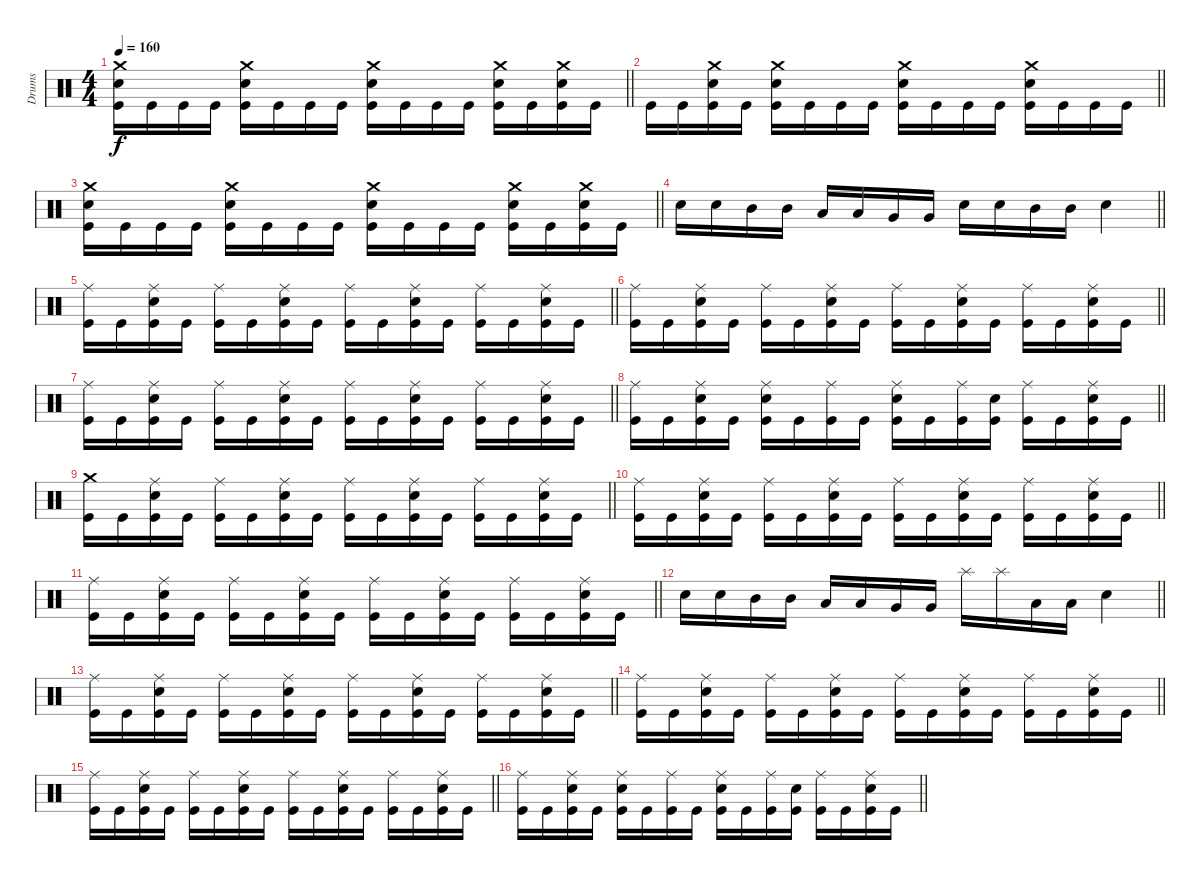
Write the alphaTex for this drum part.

\track ("Drums" "Drums") {instrument percussion}
\staff {score}
\articulation defaults
\ts (4 4)
\tempo 160
\clef neutral
\barLineRight lightlight
\ks c
("Crash medium (hit)" "Snare (hit) 2" "Kick (hit)").16{dy f} "Kick (hit)".16 "Kick (hit)".16 "Kick (hit)".16 ("Crash medium (hit)" "Snare (hit) 2" "Kick (hit)").16 "Kick (hit)".16 "Kick (hit)".16 "Kick (hit)".16 ("Crash medium (hit)" "Snare (hit) 2" "Kick (hit)").16 "Kick (hit)".16 "Kick (hit)".16 "Kick (hit)".16 ("Crash medium (hit)" "Snare (hit) 2" "Kick (hit)").16 "Kick (hit)".16 ("Crash medium (hit)" "Snare (hit) 2" "Kick (hit)").16 "Kick (hit)".16 |
\barLineRight lightlight "Kick (hit)".16 "Kick (hit)".16
("Crash medium (hit)" "Snare (hit) 2" "Kick (hit)").16 "Kick (hit)".16 ("Crash medium (hit)" "Snare (hit) 2" "Kick (hit)").16 "Kick (hit)".16 "Kick (hit)".16 "Kick (hit)".16 ("Crash medium (hit)" "Snare (hit) 2" "Kick (hit)").16 "Kick (hit)".16 "Kick (hit)".16 "Kick (hit)".16 ("Crash medium (hit)" "Snare (hit) 2" "Kick (hit)").16 "Kick (hit)".16 "Kick (hit)".16 "Kick (hit)".16 |
\barLineRight lightlight
("Crash medium (hit)" "Snare (hit) 2" "Kick (hit)").16 "Kick (hit)".16 "Kick (hit)".16 "Kick (hit)".16 ("Crash medium (hit)" "Snare (hit) 2" "Kick (hit)").16 "Kick (hit)".16 "Kick (hit)".16 "Kick (hit)".16 ("Crash medium (hit)" "Snare (hit) 2" "Kick (hit)").16 "Kick (hit)".16 "Kick (hit)".16 "Kick (hit)".16 ("Crash medium (hit)" "Snare (hit) 2" "Kick (hit)").16 "Kick (hit)".16 ("Crash medium (hit)" "Snare (hit) 2" "Kick (hit)").16 "Kick (hit)".16 |
\barLineRight lightlight "Snare (hit) 2".16 "Snare (hit) 2".16 "Mid Tom (hit)".16 "Mid Tom (hit)".16 "Low Tom (hit)".16 "Low Tom (hit)".16 "Very Low Tom (hit)".16 "Very Low Tom (hit)".16 "Snare (hit) 2".16 "Snare (hit) 2".16 "Mid Tom (hit)".16 "Mid Tom (hit)".16 "Snare (hit) 2".4
|
\barLineRight lightlight
("Ride (middle)" "Kick (hit)").16 "Kick (hit)".16 ("Ride (middle)" "Snare (hit) 2" "Kick (hit)").16 "Kick (hit)".16 ("Ride (middle)" "Kick (hit)").16 "Kick (hit)".16 ("Ride (middle)" "Snare (hit) 2" "Kick (hit)").16 "Kick (hit)".16 ("Ride (middle)" "Kick (hit)").16 "Kick (hit)".16 ("Ride (middle)" "Snare (hit) 2" "Kick (hit)").16 "Kick (hit)".16 ("Ride (middle)" "Kick (hit)").16 "Kick (hit)".16 ("Ride (middle)" "Snare (hit) 2" "Kick (hit)").16 "Kick (hit)".16 |
\barLineRight lightlight
("Ride (middle)" "Kick (hit)").16 "Kick (hit)".16 ("Ride (middle)" "Snare (hit) 2" "Kick (hit)").16 "Kick (hit)".16 ("Ride (middle)" "Kick (hit)").16 "Kick (hit)".16 ("Ride (middle)" "Snare (hit) 2" "Kick (hit)").16 "Kick (hit)".16 ("Ride (middle)" "Kick (hit)").16 "Kick (hit)".16 ("Ride (middle)" "Snare (hit) 2" "Kick (hit)").16 "Kick (hit)".16 ("Ride (middle)" "Kick (hit)").16 "Kick (hit)".16 ("Ride (middle)" "Snare (hit) 2" "Kick (hit)").16 "Kick (hit)".16 |
\barLineRight lightlight
("Ride (middle)" "Kick (hit)").16 "Kick (hit)".16 ("Ride (middle)" "Snare (hit) 2" "Kick (hit)").16 "Kick (hit)".16 ("Ride (middle)" "Kick (hit)").16 "Kick (hit)".16 ("Ride (middle)" "Snare (hit) 2" "Kick (hit)").16 "Kick (hit)".16 ("Ride (middle)" "Kick (hit)").16 "Kick (hit)".16 ("Ride (middle)" "Snare (hit) 2" "Kick (hit)").16 "Kick (hit)".16 ("Ride (middle)" "Kick (hit)").16 "Kick (hit)".16 ("Ride (middle)" "Snare (hit) 2" "Kick (hit)").16 "Kick (hit)".16 |
\barLineRight lightlight
("Ride (middle)" "Kick (hit)").16 "Kick (hit)".16 ("Ride (middle)" "Snare (hit) 2" "Kick (hit)").16 "Kick (hit)".16 ("Ride (middle)" "Snare (hit) 2" "Kick (hit)").16 "Kick (hit)".16 ("Ride (middle)" "Kick (hit)").16 "Kick (hit)".16 ("Ride (middle)" "Snare (hit) 2" "Kick (hit)").16 "Kick (hit)".16 ("Ride (middle)" "Kick (hit)").16 ("Snare (hit) 2" "Kick (hit)").16 ("Ride (middle)" "Kick (hit)").16 "Kick (hit)".16 ("Ride (middle)" "Snare (hit) 2" "Kick (hit)").16 "Kick (hit)".16 |
\barLineRight lightlight
("Crash medium (hit)" "Kick (hit)").16 "Kick (hit)".16 ("Ride (middle)" "Snare (hit) 2" "Kick (hit)").16 "Kick (hit)".16 ("Ride (middle)" "Kick (hit)").16 "Kick (hit)".16 ("Ride (middle)" "Snare (hit) 2" "Kick (hit)").16 "Kick (hit)".16 ("Ride (middle)" "Kick (hit)").16 "Kick (hit)".16 ("Ride (middle)" "Snare (hit) 2" "Kick (hit)").16 "Kick (hit)".16 ("Ride (middle)" "Kick (hit)").16 "Kick (hit)".16 ("Ride (middle)" "Snare (hit) 2" "Kick (hit)").16 "Kick (hit)".16 |
\barLineRight lightlight
("Ride (middle)" "Kick (hit)").16 "Kick (hit)".16 ("Ride (middle)" "Snare (hit) 2" "Kick (hit)").16 "Kick (hit)".16 ("Ride (middle)" "Kick (hit)").16 "Kick (hit)".16 ("Ride (middle)" "Snare (hit) 2" "Kick (hit)").16 "Kick (hit)".16 ("Ride (middle)" "Kick (hit)").16 "Kick (hit)".16 ("Ride (middle)" "Snare (hit) 2" "Kick (hit)").16 "Kick (hit)".16 ("Ride (middle)" "Kick (hit)").16 "Kick (hit)".16 ("Ride (middle)" "Snare (hit) 2" "Kick (hit)").16 "Kick (hit)".16 |
\barLineRight lightlight
("Ride (middle)" "Kick (hit)").16 "Kick (hit)".16 ("Ride (middle)" "Snare (hit) 2" "Kick (hit)").16 "Kick (hit)".16 ("Ride (middle)" "Kick (hit)").16 "Kick (hit)".16 ("Ride (middle)" "Snare (hit) 2" "Kick (hit)").16 "Kick (hit)".16 ("Ride (middle)" "Kick (hit)").16 "Kick (hit)".16 ("Ride (middle)" "Snare (hit) 2" "Kick (hit)").16 "Kick (hit)".16 ("Ride (middle)" "Kick (hit)").16 "Kick (hit)".16 ("Ride (middle)" "Snare (hit) 2" "Kick (hit)").16 "Kick (hit)".16 |
\barLineRight lightlight "Snare (hit) 2".16 "Snare (hit) 2".16 "Mid Tom (hit)".16 "Mid Tom (hit)".16 "Low Tom (hit)".16 "Low Tom (hit)".16 "Very Low Tom (hit)".16 "Very Low Tom (hit)".16 "Splash (hit)".16 "Splash (hit)".16 "Low Floor Tom (hit)".16 "Low Floor Tom (hit)".16 "Snare (hit) 2".4
|
\barLineRight lightlight
("Ride (middle)" "Kick (hit)").16 "Kick (hit)".16 ("Ride (middle)" "Snare (hit) 2" "Kick (hit)").16 "Kick (hit)".16 ("Ride (middle)" "Kick (hit)").16 "Kick (hit)".16 ("Ride (middle)" "Snare (hit) 2" "Kick (hit)").16 "Kick (hit)".16 ("Ride (middle)" "Kick (hit)").16 "Kick (hit)".16 ("Ride (middle)" "Snare (hit) 2" "Kick (hit)").16 "Kick (hit)".16 ("Ride (middle)" "Kick (hit)").16 "Kick (hit)".16 ("Ride (middle)" "Snare (hit) 2" "Kick (hit)").16 "Kick (hit)".16 |
\barLineRight lightlight
("Ride (middle)" "Kick (hit)").16 "Kick (hit)".16 ("Ride (middle)" "Snare (hit) 2" "Kick (hit)").16 "Kick (hit)".16 ("Ride (middle)" "Kick (hit)").16 "Kick (hit)".16 ("Ride (middle)" "Snare (hit) 2" "Kick (hit)").16 "Kick (hit)".16 ("Ride (middle)" "Kick (hit)").16 "Kick (hit)".16 ("Ride (middle)" "Snare (hit) 2" "Kick (hit)").16 "Kick (hit)".16 ("Ride (middle)" "Kick (hit)").16 "Kick (hit)".16 ("Ride (middle)" "Snare (hit) 2" "Kick (hit)").16 "Kick (hit)".16 |
\barLineRight lightlight
("Ride (middle)" "Kick (hit)").16 "Kick (hit)".16 ("Ride (middle)" "Snare (hit) 2" "Kick (hit)").16 "Kick (hit)".16 ("Ride (middle)" "Kick (hit)").16 "Kick (hit)".16 ("Ride (middle)" "Snare (hit) 2" "Kick (hit)").16 "Kick (hit)".16 ("Ride (middle)" "Kick (hit)").16 "Kick (hit)".16 ("Ride (middle)" "Snare (hit) 2" "Kick (hit)").16 "Kick (hit)".16 ("Ride (middle)" "Kick (hit)").16 "Kick (hit)".16 ("Ride (middle)" "Snare (hit) 2" "Kick (hit)").16 "Kick (hit)".16 |
\barLineRight lightlight
("Ride (middle)" "Kick (hit)").16 "Kick (hit)".16 ("Ride (middle)" "Snare (hit) 2" "Kick (hit)").16 "Kick (hit)".16 ("Ride (middle)" "Snare (hit) 2" "Kick (hit)").16 "Kick (hit)".16 ("Ride (middle)" "Kick (hit)").16 "Kick (hit)".16 ("Ride (middle)" "Snare (hit) 2" "Kick (hit)").16 "Kick (hit)".16 ("Ride (middle)" "Kick (hit)").16 ("Snare (hit) 2" "Kick (hit)").16 ("Ride (middle)" "Kick (hit)").16 "Kick (hit)".16 ("Ride (middle)" "Snare (hit) 2" "Kick (hit)").16 "Kick (hit)".16
